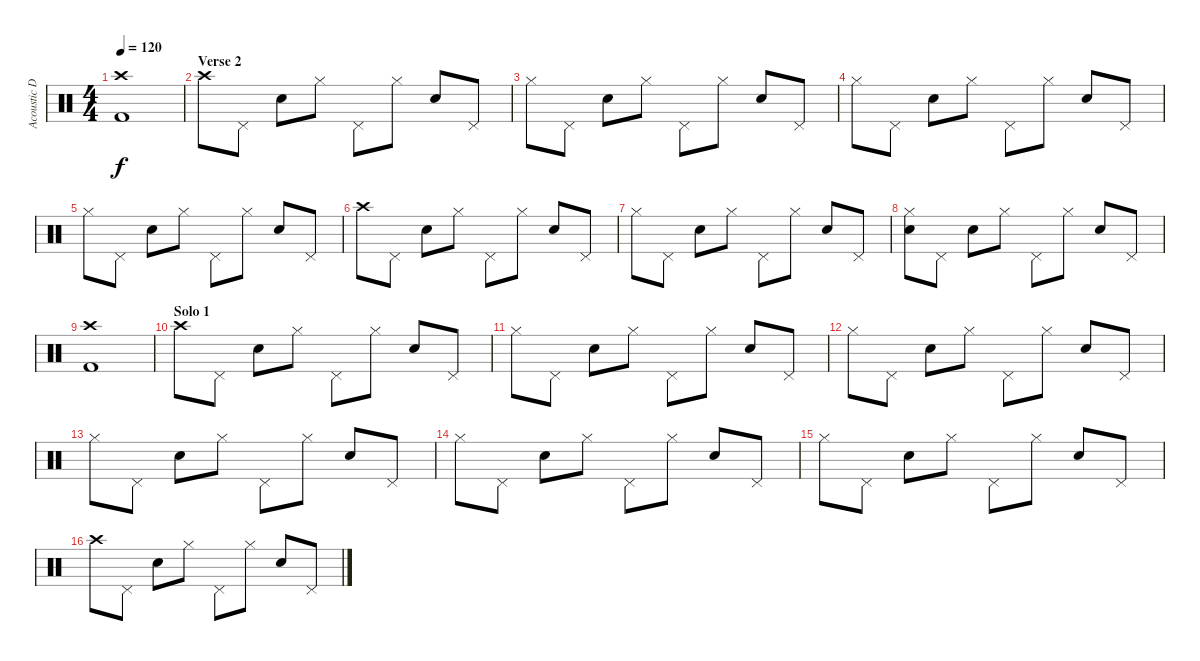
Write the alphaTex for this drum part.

\track ("Acoustic Drums" "Acoustic D") {instrument percussion}
\staff {score}
\articulation defaults
\ts (4 4)
\tempo 120
\clef neutral
\ks c
("Kick (hit) 2" "Crash high (hit)").1{dy f} |
\section ("" "Verse 2")
"Crash high (hit)".8 "Pedal Hi-Hat (hit)".8 "Electric Snare (hit)".8 "Hi-Hat (closed)".8 "Pedal Hi-Hat (hit)".8 "Hi-Hat (closed)".8 "Electric Snare (hit)".8 "Pedal Hi-Hat (hit)".8 |
"Hi-Hat (closed)".8 "Pedal Hi-Hat (hit)".8 "Electric Snare (hit)".8 "Hi-Hat (closed)".8 "Pedal Hi-Hat (hit)".8 "Hi-Hat (closed)".8 "Electric Snare (hit)".8 "Pedal Hi-Hat (hit)".8 |
"Hi-Hat (closed)".8 "Pedal Hi-Hat (hit)".8 "Electric Snare (hit)".8 "Hi-Hat (closed)".8 "Pedal Hi-Hat (hit)".8 "Hi-Hat (closed)".8 "Electric Snare (hit)".8 "Pedal Hi-Hat (hit)".8 |
"Hi-Hat (closed)".8 "Pedal Hi-Hat (hit)".8 "Electric Snare (hit)".8 "Hi-Hat (closed)".8 "Pedal Hi-Hat (hit)".8 "Hi-Hat (closed)".8 "Electric Snare (hit)".8 "Pedal Hi-Hat (hit)".8 |
"Crash high (hit)".8 "Pedal Hi-Hat (hit)".8 "Electric Snare (hit)".8 "Hi-Hat (closed)".8 "Pedal Hi-Hat (hit)".8 "Hi-Hat (closed)".8 "Electric Snare (hit)".8 "Pedal Hi-Hat (hit)".8 |
"Hi-Hat (closed)".8 "Pedal Hi-Hat (hit)".8 "Electric Snare (hit)".8 "Hi-Hat (closed)".8 "Pedal Hi-Hat (hit)".8 "Hi-Hat (closed)".8 "Electric Snare (hit)".8 "Pedal Hi-Hat (hit)".8 |
("Electric Snare (hit)" "Hi-Hat (closed)").8 "Pedal Hi-Hat (hit)".8 "Electric Snare (hit)".8 "Hi-Hat (closed)".8 "Pedal Hi-Hat (hit)".8 "Hi-Hat (closed)".8 "Electric Snare (hit)".8 "Pedal Hi-Hat (hit)".8 |
("Kick (hit) 2" "Crash high (hit)").1 |
\section ("" "Solo 1")
"Crash high (hit)".8 "Pedal Hi-Hat (hit)".8 "Electric Snare (hit)".8 "Hi-Hat (closed)".8 "Pedal Hi-Hat (hit)".8 "Hi-Hat (closed)".8 "Electric Snare (hit)".8 "Pedal Hi-Hat (hit)".8 |
"Hi-Hat (closed)".8 "Pedal Hi-Hat (hit)".8 "Electric Snare (hit)".8 "Hi-Hat (closed)".8 "Pedal Hi-Hat (hit)".8 "Hi-Hat (closed)".8 "Electric Snare (hit)".8 "Pedal Hi-Hat (hit)".8 |
"Hi-Hat (closed)".8 "Pedal Hi-Hat (hit)".8 "Electric Snare (hit)".8 "Hi-Hat (closed)".8 "Pedal Hi-Hat (hit)".8 "Hi-Hat (closed)".8 "Electric Snare (hit)".8 "Pedal Hi-Hat (hit)".8 |
"Hi-Hat (closed)".8 "Pedal Hi-Hat (hit)".8 "Electric Snare (hit)".8 "Hi-Hat (closed)".8 "Pedal Hi-Hat (hit)".8 "Hi-Hat (closed)".8 "Electric Snare (hit)".8 "Pedal Hi-Hat (hit)".8 |
"Hi-Hat (closed)".8 "Pedal Hi-Hat (hit)".8 "Electric Snare (hit)".8 "Hi-Hat (closed)".8 "Pedal Hi-Hat (hit)".8 "Hi-Hat (closed)".8 "Electric Snare (hit)".8 "Pedal Hi-Hat (hit)".8 |
"Hi-Hat (closed)".8 "Pedal Hi-Hat (hit)".8 "Electric Snare (hit)".8 "Hi-Hat (closed)".8 "Pedal Hi-Hat (hit)".8 "Hi-Hat (closed)".8 "Electric Snare (hit)".8 "Pedal Hi-Hat (hit)".8 |
"Crash high (hit)".8 "Pedal Hi-Hat (hit)".8 "Electric Snare (hit)".8 "Hi-Hat (closed)".8 "Pedal Hi-Hat (hit)".8 "Hi-Hat (closed)".8 "Electric Snare (hit)".8 "Pedal Hi-Hat (hit)".8
